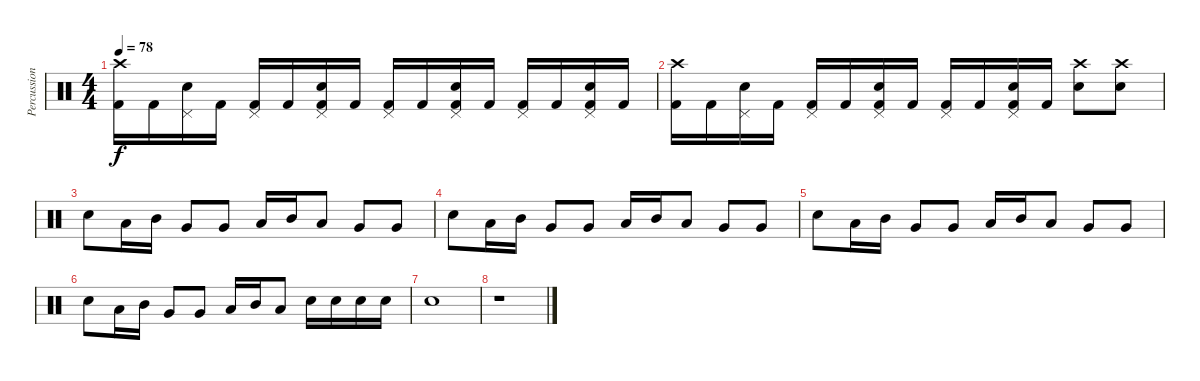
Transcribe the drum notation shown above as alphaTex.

\track ("Percussion" "Percussion") {instrument percussion}
\staff {score}
\articulation defaults
\ts (4 4)
\tempo 78
\clef neutral
\ks c
("Crash high (hit)" "Kick (hit) 2").16{dy f} "Kick (hit) 2".16 ("Pedal Hi-Hat (hit)" "Snare (hit) 2").16 "Kick (hit) 2".16 ("Pedal Hi-Hat (hit)" "Kick (hit) 2").16 "Kick (hit) 2".16 ("Pedal Hi-Hat (hit)" "Snare (hit) 2" "Kick (hit) 2").16 "Kick (hit) 2".16 ("Pedal Hi-Hat (hit)" "Kick (hit) 2").16 "Kick (hit) 2".16 ("Pedal Hi-Hat (hit)" "Snare (hit) 2" "Kick (hit) 2").16 "Kick (hit) 2".16 ("Pedal Hi-Hat (hit)" "Kick (hit) 2").16 "Kick (hit) 2".16 ("Pedal Hi-Hat (hit)" "Snare (hit) 2" "Kick (hit) 2").16 "Kick (hit) 2".16 |
("Crash high (hit)" "Kick (hit) 2").16 "Kick (hit) 2".16 ("Pedal Hi-Hat (hit)" "Snare (hit) 2").16 "Kick (hit) 2".16 ("Pedal Hi-Hat (hit)" "Kick (hit) 2").16 "Kick (hit) 2".16 ("Pedal Hi-Hat (hit)" "Snare (hit) 2" "Kick (hit) 2").16 "Kick (hit) 2".16 ("Pedal Hi-Hat (hit)" "Kick (hit) 2").16 "Kick (hit) 2".16 ("Pedal Hi-Hat (hit)" "Snare (hit) 2" "Kick (hit) 2").16 "Kick (hit) 2".16 ("Crash high (hit)" "Snare (hit) 2").8 ("Crash high (hit)" "Snare (hit) 2").8 |
"Snare (hit) 2".8 "Low Floor Tom (hit)".16 "Mid Tom (hit)".16 "Very Low Tom (hit)".8 "Very Low Tom (hit)".8 "Low Floor Tom (hit)".16 "Mid Tom (hit)".16 "Low Floor Tom (hit)".8 "Very Low Tom (hit)".8 "Very Low Tom (hit)".8 |
"Snare (hit) 2".8 "Low Floor Tom (hit)".16 "Mid Tom (hit)".16 "Very Low Tom (hit)".8 "Very Low Tom (hit)".8 "Low Floor Tom (hit)".16 "Mid Tom (hit)".16 "Low Floor Tom (hit)".8 "Very Low Tom (hit)".8 "Very Low Tom (hit)".8 |
"Snare (hit) 2".8 "Low Floor Tom (hit)".16 "Mid Tom (hit)".16 "Very Low Tom (hit)".8 "Very Low Tom (hit)".8 "Low Floor Tom (hit)".16 "Mid Tom (hit)".16 "Low Floor Tom (hit)".8 "Very Low Tom (hit)".8 "Very Low Tom (hit)".8 |
"Snare (hit) 2".8 "Low Floor Tom (hit)".16 "Mid Tom (hit)".16 "Very Low Tom (hit)".8 "Very Low Tom (hit)".8 "Low Floor Tom (hit)".16 "Mid Tom (hit)".16 "Low Floor Tom (hit)".8 "Snare (hit) 2".16 "Snare (hit) 2".16 "Snare (hit) 2".16 "Snare (hit) 2".16 |
"Snare (hit) 2".1 |
r.1
